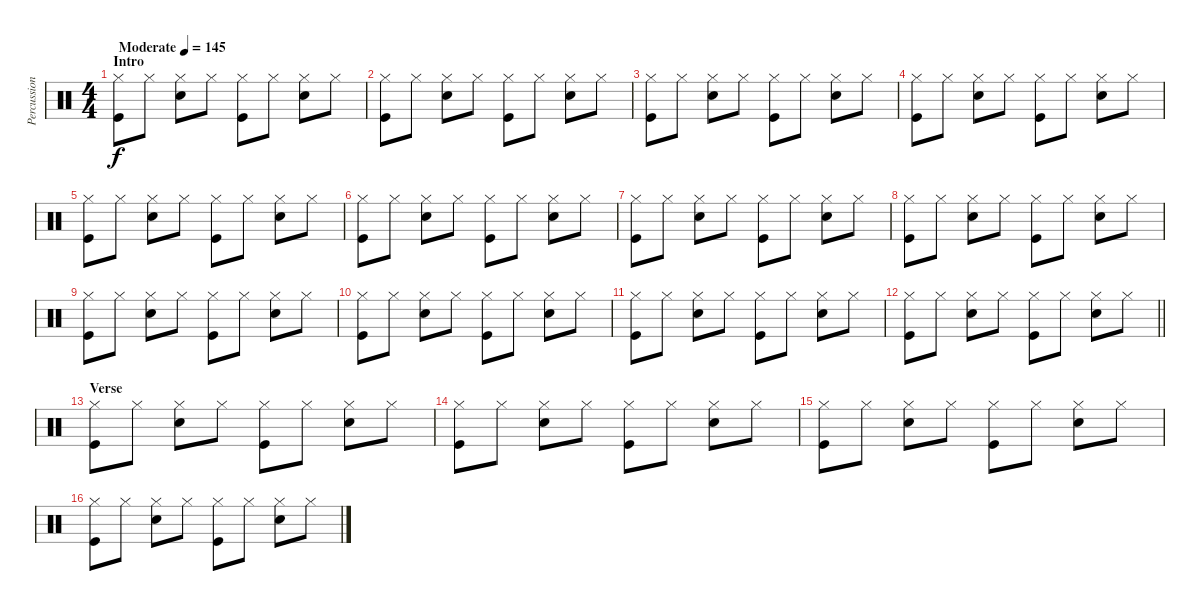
\track ("Percussion" "Percussion") {instrument percussion}
\staff {score}
\articulation defaults
\ts (4 4)
\section ("" "Intro")
\tempo (145 "Moderate")
\clef neutral
\ks c
("Hi-Hat (closed)" "Kick (hit)").8{dy f} "Hi-Hat (closed)".8 ("Hi-Hat (closed)" "Snare (hit) 2").8 "Hi-Hat (closed)".8 ("Hi-Hat (closed)" "Kick (hit)").8 "Hi-Hat (closed)".8 ("Hi-Hat (closed)" "Electric Snare (hit)").8 "Hi-Hat (closed)".8 |
("Hi-Hat (closed)" "Kick (hit)").8 "Hi-Hat (closed)".8 ("Hi-Hat (closed)" "Snare (hit) 2").8 "Hi-Hat (closed)".8 ("Hi-Hat (closed)" "Kick (hit)").8 "Hi-Hat (closed)".8 ("Hi-Hat (closed)" "Electric Snare (hit)").8 "Hi-Hat (closed)".8 |
("Hi-Hat (closed)" "Kick (hit)").8 "Hi-Hat (closed)".8 ("Hi-Hat (closed)" "Snare (hit) 2").8 "Hi-Hat (closed)".8 ("Hi-Hat (closed)" "Kick (hit)").8 "Hi-Hat (closed)".8 ("Hi-Hat (closed)" "Electric Snare (hit)").8 "Hi-Hat (closed)".8 |
("Hi-Hat (closed)" "Kick (hit)").8 "Hi-Hat (closed)".8 ("Hi-Hat (closed)" "Snare (hit) 2").8 "Hi-Hat (closed)".8 ("Hi-Hat (closed)" "Kick (hit)").8 "Hi-Hat (closed)".8 ("Hi-Hat (closed)" "Electric Snare (hit)").8 "Hi-Hat (closed)".8 |
("Hi-Hat (closed)" "Kick (hit)").8 "Hi-Hat (closed)".8 ("Hi-Hat (closed)" "Snare (hit) 2").8 "Hi-Hat (closed)".8 ("Hi-Hat (closed)" "Kick (hit)").8 "Hi-Hat (closed)".8 ("Hi-Hat (closed)" "Electric Snare (hit)").8 "Hi-Hat (closed)".8 |
("Hi-Hat (closed)" "Kick (hit)").8 "Hi-Hat (closed)".8 ("Hi-Hat (closed)" "Snare (hit) 2").8 "Hi-Hat (closed)".8 ("Hi-Hat (closed)" "Kick (hit)").8 "Hi-Hat (closed)".8 ("Hi-Hat (closed)" "Electric Snare (hit)").8 "Hi-Hat (closed)".8 |
("Hi-Hat (closed)" "Kick (hit)").8 "Hi-Hat (closed)".8 ("Hi-Hat (closed)" "Snare (hit) 2").8 "Hi-Hat (closed)".8 ("Hi-Hat (closed)" "Kick (hit)").8 "Hi-Hat (closed)".8 ("Hi-Hat (closed)" "Electric Snare (hit)").8 "Hi-Hat (closed)".8 |
("Hi-Hat (closed)" "Kick (hit)").8 "Hi-Hat (closed)".8 ("Hi-Hat (closed)" "Snare (hit) 2").8 "Hi-Hat (closed)".8 ("Hi-Hat (closed)" "Kick (hit)").8 "Hi-Hat (closed)".8 ("Hi-Hat (closed)" "Electric Snare (hit)").8 "Hi-Hat (closed)".8 |
("Hi-Hat (closed)" "Kick (hit)").8 "Hi-Hat (closed)".8 ("Hi-Hat (closed)" "Snare (hit) 2").8 "Hi-Hat (closed)".8 ("Hi-Hat (closed)" "Kick (hit)").8 "Hi-Hat (closed)".8 ("Hi-Hat (closed)" "Electric Snare (hit)").8 "Hi-Hat (closed)".8 |
("Hi-Hat (closed)" "Kick (hit)").8 "Hi-Hat (closed)".8 ("Hi-Hat (closed)" "Snare (hit) 2").8 "Hi-Hat (closed)".8 ("Hi-Hat (closed)" "Kick (hit)").8 "Hi-Hat (closed)".8 ("Hi-Hat (closed)" "Electric Snare (hit)").8 "Hi-Hat (closed)".8 |
("Hi-Hat (closed)" "Kick (hit)").8 "Hi-Hat (closed)".8 ("Hi-Hat (closed)" "Snare (hit) 2").8 "Hi-Hat (closed)".8 ("Hi-Hat (closed)" "Kick (hit)").8 "Hi-Hat (closed)".8 ("Hi-Hat (closed)" "Electric Snare (hit)").8 "Hi-Hat (closed)".8 |
\barLineRight lightlight
("Hi-Hat (closed)" "Kick (hit)").8 "Hi-Hat (closed)".8 ("Hi-Hat (closed)" "Snare (hit) 2").8 "Hi-Hat (closed)".8 ("Hi-Hat (closed)" "Kick (hit)").8 "Hi-Hat (closed)".8 ("Hi-Hat (closed)" "Electric Snare (hit)").8 "Hi-Hat (closed)".8 |
\section ("" "Verse")
("Hi-Hat (closed)" "Kick (hit)").8 "Hi-Hat (closed)".8 ("Hi-Hat (closed)" "Snare (hit) 2").8 "Hi-Hat (closed)".8 ("Hi-Hat (closed)" "Kick (hit)").8 "Hi-Hat (closed)".8 ("Hi-Hat (closed)" "Electric Snare (hit)").8 "Hi-Hat (closed)".8 |
("Hi-Hat (closed)" "Kick (hit)").8 "Hi-Hat (closed)".8 ("Hi-Hat (closed)" "Snare (hit) 2").8 "Hi-Hat (closed)".8 ("Hi-Hat (closed)" "Kick (hit)").8 "Hi-Hat (closed)".8 ("Hi-Hat (closed)" "Electric Snare (hit)").8 "Hi-Hat (closed)".8 |
("Hi-Hat (closed)" "Kick (hit)").8 "Hi-Hat (closed)".8 ("Hi-Hat (closed)" "Snare (hit) 2").8 "Hi-Hat (closed)".8 ("Hi-Hat (closed)" "Kick (hit)").8 "Hi-Hat (closed)".8 ("Hi-Hat (closed)" "Electric Snare (hit)").8 "Hi-Hat (closed)".8 |
("Hi-Hat (closed)" "Kick (hit)").8 "Hi-Hat (closed)".8 ("Hi-Hat (closed)" "Snare (hit) 2").8 "Hi-Hat (closed)".8 ("Hi-Hat (closed)" "Kick (hit)").8 "Hi-Hat (closed)".8 ("Hi-Hat (closed)" "Electric Snare (hit)").8 "Hi-Hat (closed)".8
